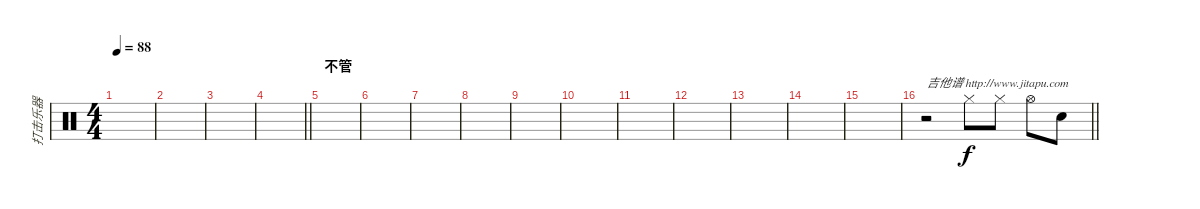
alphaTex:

\track ("打击乐器" "打击乐器") {instrument percussion}
\staff {score}
\articulation defaults
\ts (4 4)
\tempo 88
\clef neutral
\ks c
|
|
|
\barLineRight lightlight
|
\section ("" "不管")
|
|
|
|
|
|
|
|
|
|
|
\barLineRight lightlight
r.2{txt "吉他谱 http://www.jitapu.com"} "Hi-Hat (closed)".8 "Hi-Hat (closed)".8 "Hi-Hat (open)".8 "Electric Snare (hit)".8
